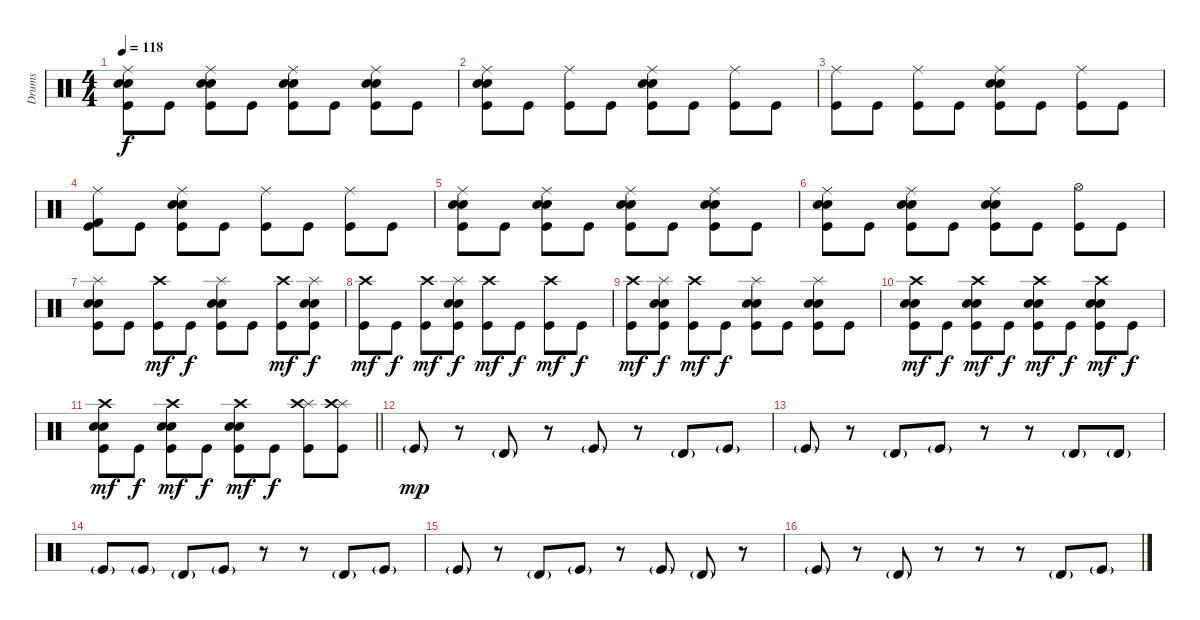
\track ("Drums" "Drums") {instrument percussion}
\staff {score}
\articulation defaults
\ts (4 4)
\tempo 118
\clef neutral
\ks c
("Ride (middle)" "Snare (hit) 2" "Electric Snare (hit)" "Kick (hit)").8{dy f} "Kick (hit)".8 ("Ride (middle)" "Snare (hit) 2" "Electric Snare (hit)" "Kick (hit)").8 "Kick (hit)".8 ("Ride (middle)" "Snare (hit) 2" "Electric Snare (hit)" "Kick (hit)").8 "Kick (hit)".8 ("Ride (middle)" "Snare (hit) 2" "Electric Snare (hit)" "Kick (hit)").8 "Kick (hit)".8 |
("Ride (middle)" "Snare (hit) 2" "Electric Snare (hit)" "Kick (hit)").8 "Kick (hit)".8 ("Ride (middle)" "Kick (hit)").8 "Kick (hit)".8 ("Ride (middle)" "Snare (hit) 2" "Electric Snare (hit)" "Kick (hit)").8 "Kick (hit)".8 ("Ride (middle)" "Kick (hit)").8 "Kick (hit)".8 |
("Ride (middle)" "Kick (hit)").8 "Kick (hit)".8 ("Ride (middle)" "Kick (hit)").8 "Kick (hit)".8 ("Ride (middle)" "Snare (hit) 2" "Electric Snare (hit)" "Kick (hit)").8 "Kick (hit)".8 ("Ride (middle)" "Kick (hit)").8 "Kick (hit)".8 |
("Ride (middle)" "Kick (hit) 2" "Kick (hit)").8 "Kick (hit)".8 ("Ride (middle)" "Snare (hit) 2" "Electric Snare (hit)" "Kick (hit)").8 "Kick (hit)".8 ("Ride (middle)" "Kick (hit)").8 "Kick (hit)".8 ("Ride (middle)" "Kick (hit)").8 "Kick (hit)".8 |
("Ride (middle)" "Snare (hit) 2" "Electric Snare (hit)" "Kick (hit)").8 "Kick (hit)".8 ("Ride (middle)" "Snare (hit) 2" "Electric Snare (hit)" "Kick (hit)").8 "Kick (hit)".8 ("Ride (middle)" "Snare (hit) 2" "Electric Snare (hit)" "Kick (hit)").8 "Kick (hit)".8 ("Ride (middle)" "Snare (hit) 2" "Electric Snare (hit)" "Kick (hit)").8 "Kick (hit)".8 |
("Ride (middle)" "Snare (hit) 2" "Electric Snare (hit)" "Kick (hit)").8 "Kick (hit)".8 ("Ride (middle)" "Snare (hit) 2" "Electric Snare (hit)" "Kick (hit)").8 "Kick (hit)".8 ("Ride (middle)" "Snare (hit) 2" "Electric Snare (hit)" "Kick (hit)").8 "Kick (hit)".8 ("Hi-Hat (open)" "Kick (hit)").8 "Kick (hit)".8 |
("Splash (hit)" "Snare (hit) 2" "Electric Snare (hit)" "Kick (hit)").8 "Kick (hit)".8 ("Crash high (hit)" "Kick (hit)").8{dy mf} "Kick (hit)".8{dy f} ("Splash (hit)" "Snare (hit) 2" "Electric Snare (hit)" "Kick (hit)").8 "Kick (hit)".8 ("Crash high (hit)" "Kick (hit)").8{dy mf} ("Splash (hit)" "Snare (hit) 2" "Electric Snare (hit)" "Kick (hit)").8{dy f} |
("Crash high (hit)" "Kick (hit)").8{dy mf} "Kick (hit)".8{dy f} ("Crash high (hit)" "Kick (hit)").8{dy mf} ("Splash (hit)" "Snare (hit) 2" "Electric Snare (hit)" "Kick (hit)").8{dy f} ("Crash high (hit)" "Kick (hit)").8{dy mf} "Kick (hit)".8{dy f} ("Crash high (hit)" "Kick (hit)").8{dy mf} "Kick (hit)".8{dy f} |
("Crash high (hit)" "Kick (hit)").8{dy mf} ("Splash (hit)" "Snare (hit) 2" "Electric Snare (hit)" "Kick (hit)").8{dy f} ("Crash high (hit)" "Kick (hit)").8{dy mf} "Kick (hit)".8{dy f} ("Splash (hit)" "Snare (hit) 2" "Electric Snare (hit)" "Kick (hit)").8 "Kick (hit)".8 ("Splash (hit)" "Snare (hit) 2" "Electric Snare (hit)" "Kick (hit)").8 "Kick (hit)".8 |
("Crash high (hit)" "Snare (hit) 2" "Electric Snare (hit)" "Kick (hit)").8{dy mf} "Kick (hit)".8{dy f} ("Crash high (hit)" "Snare (hit) 2" "Electric Snare (hit)" "Kick (hit)").8{dy mf} "Kick (hit)".8{dy f} ("Crash high (hit)" "Snare (hit) 2" "Electric Snare (hit)" "Kick (hit)").8{dy mf} "Kick (hit)".8{dy f} ("Crash high (hit)" "Snare (hit) 2" "Electric Snare (hit)" "Kick (hit)").8{dy mf} "Kick (hit)".8{dy f} |
\barLineRight lightlight
("Crash high (hit)" "Snare (hit) 2" "Electric Snare (hit)" "Kick (hit)").8{dy mf} "Kick (hit)".8{dy f} ("Crash high (hit)" "Snare (hit) 2" "Electric Snare (hit)" "Kick (hit)").8{dy mf} "Kick (hit)".8{dy f} ("Crash high (hit)" "Snare (hit) 2" "Electric Snare (hit)" "Kick (hit)").8{dy mf} "Kick (hit)".8{dy f} ("Splash (hit)" "Crash high (hit)" "Kick (hit)").8 ("Splash (hit)" "Crash high (hit)" "Kick (hit)").8 |
"Kick (hit)"{g}.8{dy mp} r.8 "Timbale high (hit)"{g}.8 r.8 "Kick (hit)"{g}.8 r.8 "Timbale high (hit)"{g}.8 "Kick (hit)"{g}.8 |
"Kick (hit)"{g}.8 r.8 "Timbale high (hit)"{g}.8 "Kick (hit)"{g}.8 r.8 r.8 "Timbale high (hit)"{g}.8 "Timbale high (hit)"{g}.8 |
"Kick (hit)"{g}.8 "Kick (hit)"{g}.8 "Timbale high (hit)"{g}.8 "Kick (hit)"{g}.8 r.8 r.8 "Timbale high (hit)"{g}.8 "Kick (hit)"{g}.8 |
"Kick (hit)"{g}.8 r.8 "Timbale high (hit)"{g}.8 "Kick (hit)"{g}.8 r.8 "Kick (hit)"{g}.8 "Timbale high (hit)"{g}.8 r.8 |
"Kick (hit)"{g}.8 r.8 "Timbale high (hit)"{g}.8 r.8 r.8 r.8 "Timbale high (hit)"{g}.8 "Kick (hit)"{g}.8
